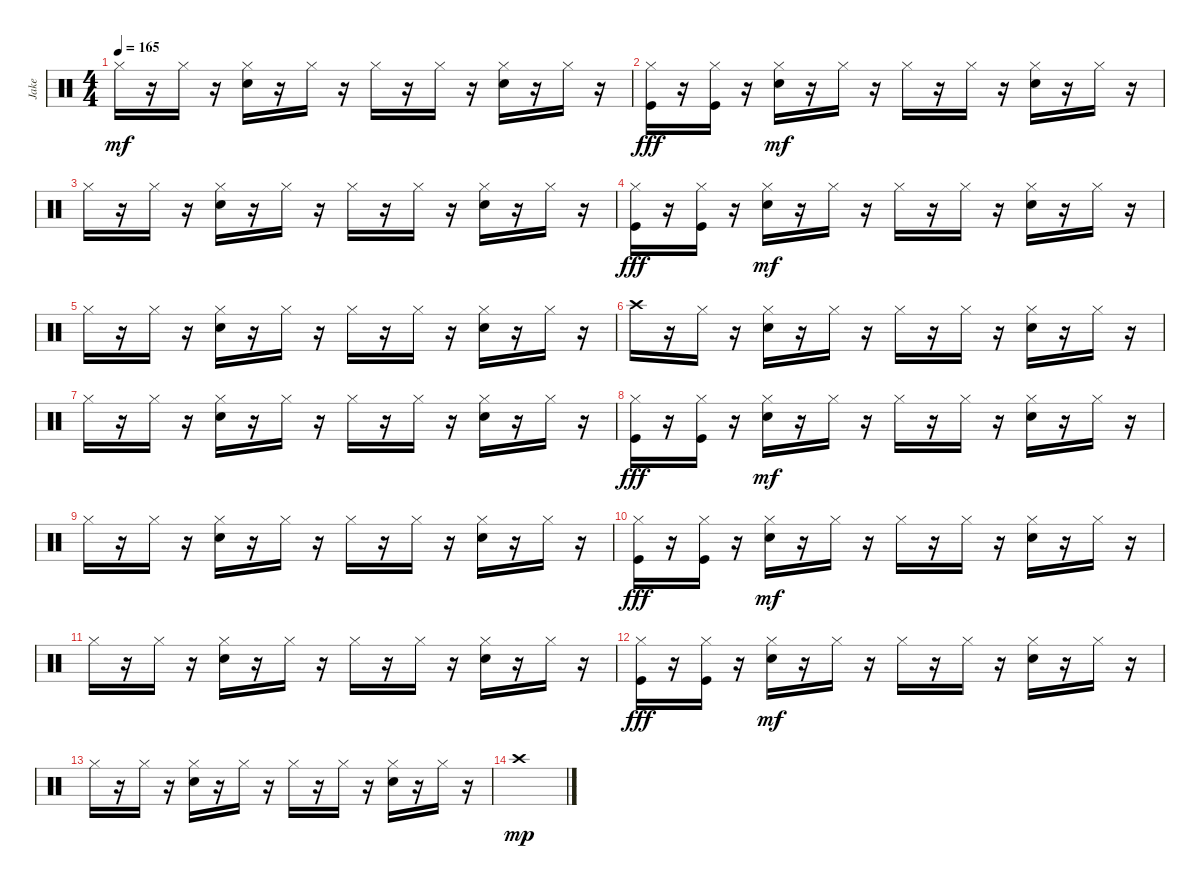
\track ("Jake" "Jake") {instrument percussion}
\staff {score}
\articulation defaults
\ts (4 4)
\tempo 165
\clef neutral
\ks c "Hi-Hat (closed)".16{dy mf}
r.16 "Hi-Hat (closed)".16 r.16 ("Hi-Hat (closed)" "Electric Snare (hit)").16 r.16 "Hi-Hat (closed)".16 r.16 "Hi-Hat (closed)".16 r.16 "Hi-Hat (closed)".16 r.16 ("Hi-Hat (closed)" "Electric Snare (hit)").16 r.16 "Hi-Hat (closed)".16 r.16 |
("Hi-Hat (closed)" "Kick (hit)").16{dy fff} r.16 ("Hi-Hat (closed)" "Kick (hit)").16 r.16 ("Hi-Hat (closed)" "Electric Snare (hit)").16{dy mf} r.16 "Hi-Hat (closed)".16 r.16 "Hi-Hat (closed)".16 r.16 "Hi-Hat (closed)".16 r.16 ("Hi-Hat (closed)" "Electric Snare (hit)").16 r.16 "Hi-Hat (closed)".16 r.16 |
"Hi-Hat (closed)".16 r.16 "Hi-Hat (closed)".16 r.16 ("Hi-Hat (closed)" "Electric Snare (hit)").16 r.16 "Hi-Hat (closed)".16 r.16 "Hi-Hat (closed)".16 r.16 "Hi-Hat (closed)".16 r.16 ("Hi-Hat (closed)" "Electric Snare (hit)").16 r.16 "Hi-Hat (closed)".16 r.16 |
("Hi-Hat (closed)" "Kick (hit)").16{dy fff} r.16 ("Hi-Hat (closed)" "Kick (hit)").16 r.16 ("Hi-Hat (closed)" "Electric Snare (hit)").16{dy mf} r.16 "Hi-Hat (closed)".16 r.16 "Hi-Hat (closed)".16 r.16 "Hi-Hat (closed)".16 r.16 ("Hi-Hat (closed)" "Electric Snare (hit)").16 r.16 "Hi-Hat (closed)".16 r.16 |
"Hi-Hat (closed)".16 r.16 "Hi-Hat (closed)".16 r.16 ("Hi-Hat (closed)" "Electric Snare (hit)").16 r.16 "Hi-Hat (closed)".16 r.16 "Hi-Hat (closed)".16 r.16 "Hi-Hat (closed)".16 r.16 ("Hi-Hat (closed)" "Electric Snare (hit)").16 r.16 "Hi-Hat (closed)".16 r.16 |
"Crash high (hit)".16 r.16 "Hi-Hat (closed)".16 r.16 ("Hi-Hat (closed)" "Electric Snare (hit)").16 r.16 "Hi-Hat (closed)".16 r.16 "Hi-Hat (closed)".16 r.16 "Hi-Hat (closed)".16 r.16 ("Hi-Hat (closed)" "Electric Snare (hit)").16 r.16 "Hi-Hat (closed)".16 r.16 |
"Hi-Hat (closed)".16 r.16 "Hi-Hat (closed)".16 r.16 ("Hi-Hat (closed)" "Electric Snare (hit)").16 r.16 "Hi-Hat (closed)".16 r.16 "Hi-Hat (closed)".16 r.16 "Hi-Hat (closed)".16 r.16 ("Hi-Hat (closed)" "Electric Snare (hit)").16 r.16 "Hi-Hat (closed)".16 r.16 |
("Hi-Hat (closed)" "Kick (hit)").16{dy fff} r.16 ("Hi-Hat (closed)" "Kick (hit)").16 r.16 ("Hi-Hat (closed)" "Electric Snare (hit)").16{dy mf} r.16 "Hi-Hat (closed)".16 r.16 "Hi-Hat (closed)".16 r.16 "Hi-Hat (closed)".16 r.16 ("Hi-Hat (closed)" "Electric Snare (hit)").16 r.16 "Hi-Hat (closed)".16 r.16 |
"Hi-Hat (closed)".16 r.16 "Hi-Hat (closed)".16 r.16 ("Hi-Hat (closed)" "Electric Snare (hit)").16 r.16 "Hi-Hat (closed)".16 r.16 "Hi-Hat (closed)".16 r.16 "Hi-Hat (closed)".16 r.16 ("Hi-Hat (closed)" "Electric Snare (hit)").16 r.16 "Hi-Hat (closed)".16 r.16 |
("Hi-Hat (closed)" "Kick (hit)").16{dy fff} r.16 ("Hi-Hat (closed)" "Kick (hit)").16 r.16 ("Hi-Hat (closed)" "Electric Snare (hit)").16{dy mf} r.16 "Hi-Hat (closed)".16 r.16 "Hi-Hat (closed)".16 r.16 "Hi-Hat (closed)".16 r.16 ("Hi-Hat (closed)" "Electric Snare (hit)").16 r.16 "Hi-Hat (closed)".16 r.16 |
"Hi-Hat (closed)".16 r.16 "Hi-Hat (closed)".16 r.16 ("Hi-Hat (closed)" "Electric Snare (hit)").16 r.16 "Hi-Hat (closed)".16 r.16 "Hi-Hat (closed)".16 r.16 "Hi-Hat (closed)".16 r.16 ("Hi-Hat (closed)" "Electric Snare (hit)").16 r.16 "Hi-Hat (closed)".16 r.16 |
("Hi-Hat (closed)" "Kick (hit)").16{dy fff} r.16 ("Hi-Hat (closed)" "Kick (hit)").16 r.16 ("Hi-Hat (closed)" "Electric Snare (hit)").16{dy mf} r.16 "Hi-Hat (closed)".16 r.16 "Hi-Hat (closed)".16 r.16 "Hi-Hat (closed)".16 r.16 ("Hi-Hat (closed)" "Electric Snare (hit)").16 r.16 "Hi-Hat (closed)".16 r.16 |
"Hi-Hat (closed)".16 r.16 "Hi-Hat (closed)".16 r.16 ("Hi-Hat (closed)" "Electric Snare (hit)").16 r.16 "Hi-Hat (closed)".16 r.16 "Hi-Hat (closed)".16 r.16 "Hi-Hat (closed)".16 r.16 ("Hi-Hat (closed)" "Electric Snare (hit)").16 r.16 "Hi-Hat (closed)".16 r.16 |
"Crash high (hit)".1{dy mp}
